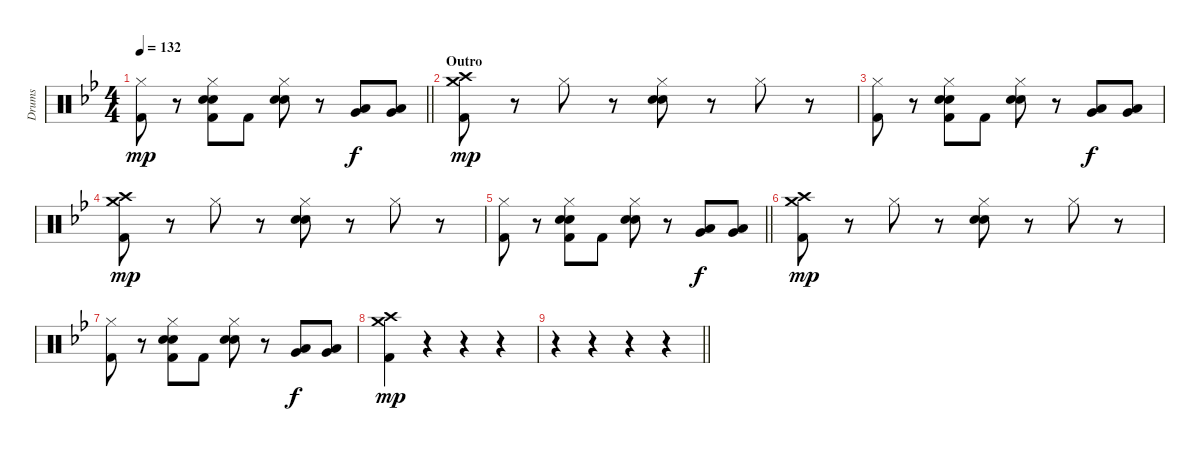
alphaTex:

\track ("Drums" "Drums") {instrument percussion}
\staff
\articulation defaults
\ts (4 4)
\tempo 132
\clef neutral
\barLineRight lightlight
\ks bb
("Hi-Hat (closed)" "Kick (hit) 2").8{dy mp} r.8 ("Hi-Hat (closed)" "Electric Snare (hit)" "Electric Snare (hit)" "Kick (hit) 2").8 "Kick (hit) 2".8 ("Hi-Hat (closed)" "Electric Snare (hit)" "Electric Snare (hit)").8 r.8 ("Low Floor Tom (hit)" "Very Low Tom (hit)").8{dy f} ("Low Floor Tom (hit)" "Very Low Tom (hit)").8 |
\section ("" "Outro")
("Crash high (hit)" "Crash medium (hit)" "Kick (hit) 2").8{dy mp} r.8 "Hi-Hat (closed)".8 r.8 ("Hi-Hat (closed)" "Electric Snare (hit)" "Electric Snare (hit)").8 r.8 "Hi-Hat (closed)".8 r.8 |
("Hi-Hat (closed)" "Kick (hit) 2").8 r.8 ("Hi-Hat (closed)" "Electric Snare (hit)" "Electric Snare (hit)" "Kick (hit) 2").8 "Kick (hit) 2".8 ("Hi-Hat (closed)" "Electric Snare (hit)" "Electric Snare (hit)").8 r.8 ("Low Floor Tom (hit)" "Very Low Tom (hit)").8{dy f} ("Low Floor Tom (hit)" "Very Low Tom (hit)").8 |
("Crash high (hit)" "Crash medium (hit)" "Kick (hit) 2").8{dy mp} r.8 "Hi-Hat (closed)".8 r.8 ("Hi-Hat (closed)" "Electric Snare (hit)" "Electric Snare (hit)").8 r.8 "Hi-Hat (closed)".8 r.8 |
\barLineRight lightlight
("Hi-Hat (closed)" "Kick (hit) 2").8 r.8 ("Hi-Hat (closed)" "Electric Snare (hit)" "Electric Snare (hit)" "Kick (hit) 2").8 "Kick (hit) 2".8 ("Hi-Hat (closed)" "Electric Snare (hit)" "Electric Snare (hit)").8 r.8 ("Low Floor Tom (hit)" "Very Low Tom (hit)").8{dy f} ("Low Floor Tom (hit)" "Very Low Tom (hit)").8 |
("Crash high (hit)" "Crash medium (hit)" "Kick (hit) 2").8{dy mp} r.8 "Hi-Hat (closed)".8 r.8 ("Hi-Hat (closed)" "Electric Snare (hit)" "Electric Snare (hit)").8 r.8 "Hi-Hat (closed)".8 r.8 |
("Hi-Hat (closed)" "Kick (hit) 2").8 r.8 ("Hi-Hat (closed)" "Electric Snare (hit)" "Electric Snare (hit)" "Kick (hit) 2").8 "Kick (hit) 2".8 ("Hi-Hat (closed)" "Electric Snare (hit)" "Electric Snare (hit)").8 r.8 ("Low Floor Tom (hit)" "Very Low Tom (hit)").8{dy f} ("Low Floor Tom (hit)" "Very Low Tom (hit)").8 |
("Crash high (hit)" "Crash medium (hit)" "Kick (hit) 2").4{dy mp} r.4 r.4 r.4 |
\barLineRight lightlight
r.4 r.4 r.4 r.4
